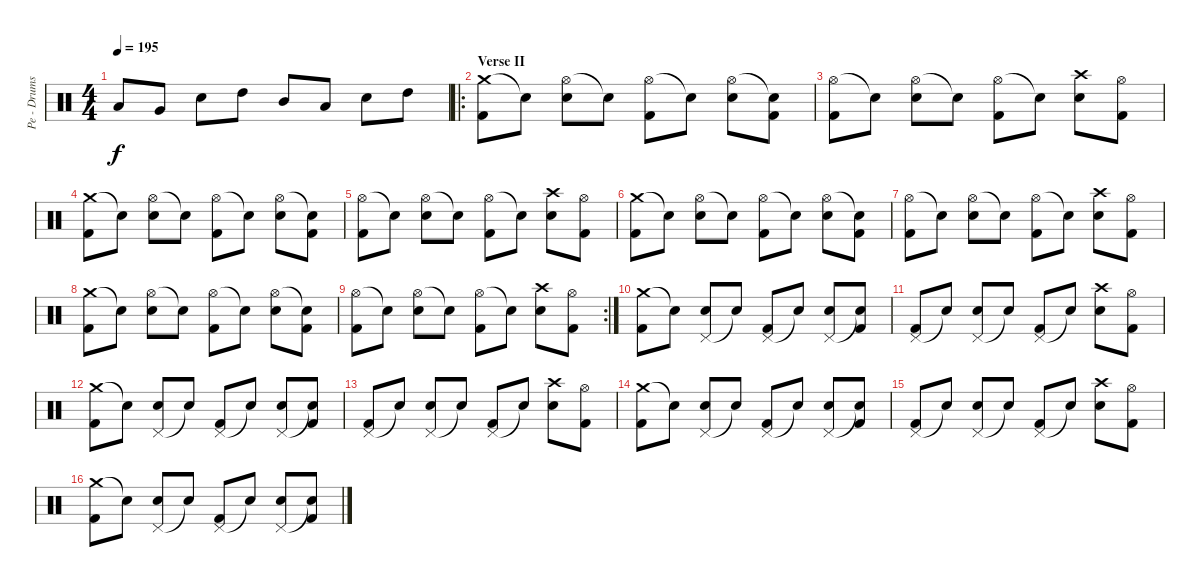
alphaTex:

\track ("Pe - Drums" "Pe - Drums") {instrument percussion}
\staff {score}
\articulation defaults
\ts (4 4)
\tempo 195
\clef neutral
\ks c "Low Tom (hit)".8{dy f} "Very Low Tom (hit)".8 "Electric Snare (hit)".8 "High Tom (hit)".8 "Mid Tom (hit)".8 "Low Tom (hit)".8 "Electric Snare (hit)".8 "High Tom (hit)".8
|
\ro
\section ("" "Verse II")
("Crash medium (hit)" "Kick (hit) 2").8 "Snare (hit)"{t}.8 ("Hi-Hat (open)" "Electric Snare (hit)").8 "Snare (hit)"{t}.8 ("Hi-Hat (open)" "Kick (hit) 2").8 "Snare (hit)"{t}.8 ("Hi-Hat (open)" "Electric Snare (hit)").8 ("Snare (hit)"{t} "Kick (hit) 2").8 |
("Hi-Hat (open)" "Kick (hit) 2").8 "Snare (hit)"{t}.8 ("Hi-Hat (open)" "Electric Snare (hit)").8 "Snare (hit)"{t}.8 ("Hi-Hat (open)" "Kick (hit) 2").8 "Snare (hit)"{t}.8 ("Crash high (hit)" "Electric Snare (hit)").8 ("Hi-Hat (open)" "Kick (hit) 2").8 |
("Crash medium (hit)" "Kick (hit) 2").8 "Snare (hit)"{t}.8 ("Hi-Hat (open)" "Electric Snare (hit)").8 "Snare (hit)"{t}.8 ("Hi-Hat (open)" "Kick (hit) 2").8 "Snare (hit)"{t}.8 ("Hi-Hat (open)" "Electric Snare (hit)").8 ("Snare (hit)"{t} "Kick (hit) 2").8 |
("Hi-Hat (open)" "Kick (hit) 2").8 "Snare (hit)"{t}.8 ("Hi-Hat (open)" "Electric Snare (hit)").8 "Snare (hit)"{t}.8 ("Hi-Hat (open)" "Kick (hit) 2").8 "Snare (hit)"{t}.8 ("Crash high (hit)" "Electric Snare (hit)").8 ("Hi-Hat (open)" "Kick (hit) 2").8 |
("Crash medium (hit)" "Kick (hit) 2").8 "Snare (hit)"{t}.8 ("Hi-Hat (open)" "Electric Snare (hit)").8 "Snare (hit)"{t}.8 ("Hi-Hat (open)" "Kick (hit) 2").8 "Snare (hit)"{t}.8 ("Hi-Hat (open)" "Electric Snare (hit)").8 ("Snare (hit)"{t} "Kick (hit) 2").8 |
("Hi-Hat (open)" "Kick (hit) 2").8 "Snare (hit)"{t}.8 ("Hi-Hat (open)" "Electric Snare (hit)").8 "Snare (hit)"{t}.8 ("Hi-Hat (open)" "Kick (hit) 2").8 "Snare (hit)"{t}.8 ("Crash high (hit)" "Electric Snare (hit)").8 ("Hi-Hat (open)" "Kick (hit) 2").8 |
("Crash medium (hit)" "Kick (hit) 2").8 "Snare (hit)"{t}.8 ("Hi-Hat (open)" "Electric Snare (hit)").8 "Snare (hit)"{t}.8 ("Hi-Hat (open)" "Kick (hit) 2").8 "Snare (hit)"{t}.8 ("Hi-Hat (open)" "Electric Snare (hit)").8 ("Snare (hit)"{t} "Kick (hit) 2").8 |
\rc 2
("Hi-Hat (open)" "Kick (hit) 2").8 "Snare (hit)"{t}.8 ("Hi-Hat (open)" "Electric Snare (hit)").8 "Snare (hit)"{t}.8 ("Hi-Hat (open)" "Kick (hit) 2").8 "Snare (hit)"{t}.8 ("Crash high (hit)" "Electric Snare (hit)").8 ("Hi-Hat (open)" "Kick (hit) 2").8 |
("Crash medium (hit)" "Kick (hit) 2").8 "Snare (hit)"{t}.8 ("Pedal Hi-Hat (hit)" "Electric Snare (hit)").8 "Snare (hit)"{t}.8 ("Pedal Hi-Hat (hit)" "Kick (hit) 2").8 "Snare (hit)"{t}.8 ("Pedal Hi-Hat (hit)" "Electric Snare (hit)").8 ("Snare (hit)"{t} "Kick (hit) 2").8 |
("Pedal Hi-Hat (hit)" "Kick (hit) 2").8 "Snare (hit)"{t}.8 ("Pedal Hi-Hat (hit)" "Electric Snare (hit)").8 "Snare (hit)"{t}.8 ("Pedal Hi-Hat (hit)" "Kick (hit) 2").8 "Snare (hit)"{t}.8 ("Crash high (hit)" "Electric Snare (hit)").8 ("Hi-Hat (open)" "Kick (hit) 2").8 |
("Crash medium (hit)" "Kick (hit) 2").8 "Snare (hit)"{t}.8 ("Pedal Hi-Hat (hit)" "Electric Snare (hit)").8 "Snare (hit)"{t}.8 ("Pedal Hi-Hat (hit)" "Kick (hit) 2").8 "Snare (hit)"{t}.8 ("Pedal Hi-Hat (hit)" "Electric Snare (hit)").8 ("Snare (hit)"{t} "Kick (hit) 2").8 |
("Pedal Hi-Hat (hit)" "Kick (hit) 2").8 "Snare (hit)"{t}.8 ("Pedal Hi-Hat (hit)" "Electric Snare (hit)").8 "Snare (hit)"{t}.8 ("Pedal Hi-Hat (hit)" "Kick (hit) 2").8 "Snare (hit)"{t}.8 ("Crash high (hit)" "Electric Snare (hit)").8 ("Hi-Hat (open)" "Kick (hit) 2").8 |
("Crash medium (hit)" "Kick (hit) 2").8 "Snare (hit)"{t}.8 ("Pedal Hi-Hat (hit)" "Electric Snare (hit)").8 "Snare (hit)"{t}.8 ("Pedal Hi-Hat (hit)" "Kick (hit) 2").8 "Snare (hit)"{t}.8 ("Pedal Hi-Hat (hit)" "Electric Snare (hit)").8 ("Snare (hit)"{t} "Kick (hit) 2").8 |
("Pedal Hi-Hat (hit)" "Kick (hit) 2").8 "Snare (hit)"{t}.8 ("Pedal Hi-Hat (hit)" "Electric Snare (hit)").8 "Snare (hit)"{t}.8 ("Pedal Hi-Hat (hit)" "Kick (hit) 2").8 "Snare (hit)"{t}.8 ("Crash high (hit)" "Electric Snare (hit)").8 ("Hi-Hat (open)" "Kick (hit) 2").8 |
("Crash medium (hit)" "Kick (hit) 2").8 "Snare (hit)"{t}.8 ("Pedal Hi-Hat (hit)" "Electric Snare (hit)").8 "Snare (hit)"{t}.8 ("Pedal Hi-Hat (hit)" "Kick (hit) 2").8 "Snare (hit)"{t}.8 ("Pedal Hi-Hat (hit)" "Electric Snare (hit)").8 ("Snare (hit)"{t} "Kick (hit) 2").8
